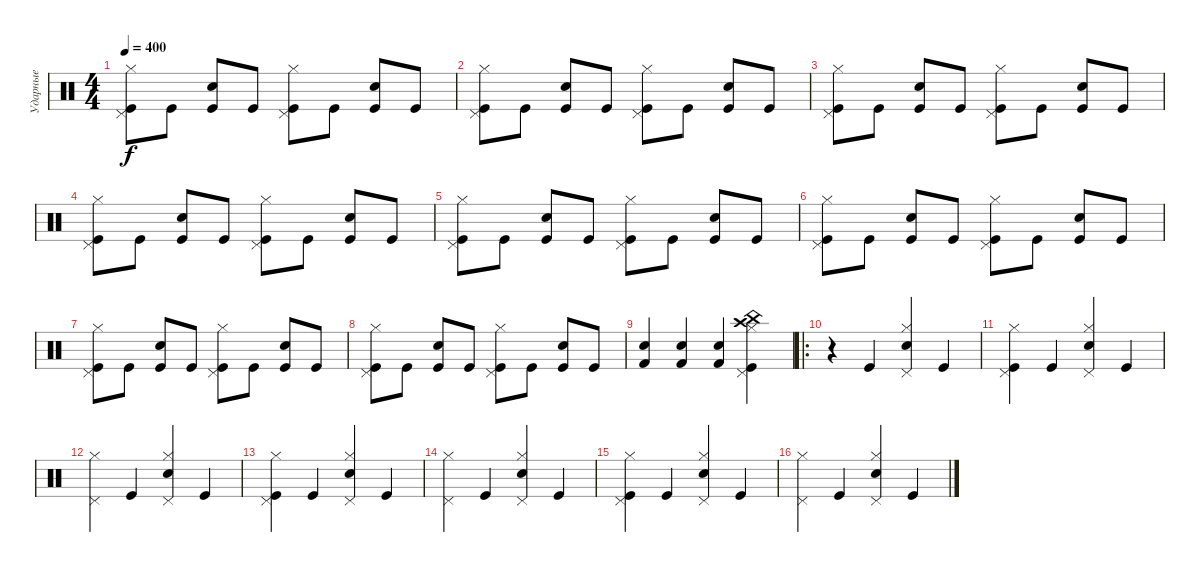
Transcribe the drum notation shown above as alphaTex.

\track ("Ударные" "Ударные") {instrument percussion}
\staff {score}
\articulation defaults
\ts (4 4)
\tempo 400
\clef neutral
\ks c
("Kick (hit)" "Pedal Hi-Hat (hit)" "Hi-Hat (closed)").8{dy f} "Kick (hit)".8 ("Kick (hit)" "Electric Snare (hit)").8 "Kick (hit)".8 ("Kick (hit)" "Hi-Hat (closed)" "Pedal Hi-Hat (hit)").8 "Kick (hit)".8 ("Kick (hit)" "Electric Snare (hit)").8 "Kick (hit)".8 |
("Kick (hit)" "Pedal Hi-Hat (hit)" "Hi-Hat (closed)").8 "Kick (hit)".8 ("Kick (hit)" "Electric Snare (hit)").8 "Kick (hit)".8 ("Kick (hit)" "Hi-Hat (closed)" "Pedal Hi-Hat (hit)").8 "Kick (hit)".8 ("Kick (hit)" "Electric Snare (hit)").8 "Kick (hit)".8 |
("Kick (hit)" "Pedal Hi-Hat (hit)" "Hi-Hat (closed)").8 "Kick (hit)".8 ("Kick (hit)" "Electric Snare (hit)").8 "Kick (hit)".8 ("Kick (hit)" "Hi-Hat (closed)" "Pedal Hi-Hat (hit)").8 "Kick (hit)".8 ("Kick (hit)" "Electric Snare (hit)").8 "Kick (hit)".8 |
("Kick (hit)" "Pedal Hi-Hat (hit)" "Hi-Hat (closed)").8 "Kick (hit)".8 ("Kick (hit)" "Electric Snare (hit)").8 "Kick (hit)".8 ("Kick (hit)" "Hi-Hat (closed)" "Pedal Hi-Hat (hit)").8 "Kick (hit)".8 ("Kick (hit)" "Electric Snare (hit)").8 "Kick (hit)".8 |
("Kick (hit)" "Pedal Hi-Hat (hit)" "Hi-Hat (closed)").8 "Kick (hit)".8 ("Kick (hit)" "Electric Snare (hit)").8 "Kick (hit)".8 ("Kick (hit)" "Hi-Hat (closed)" "Pedal Hi-Hat (hit)").8 "Kick (hit)".8 ("Kick (hit)" "Electric Snare (hit)").8 "Kick (hit)".8 |
("Kick (hit)" "Pedal Hi-Hat (hit)" "Hi-Hat (closed)").8 "Kick (hit)".8 ("Kick (hit)" "Electric Snare (hit)").8 "Kick (hit)".8 ("Kick (hit)" "Hi-Hat (closed)" "Pedal Hi-Hat (hit)").8 "Kick (hit)".8 ("Kick (hit)" "Electric Snare (hit)").8 "Kick (hit)".8 |
("Kick (hit)" "Pedal Hi-Hat (hit)" "Hi-Hat (closed)").8 "Kick (hit)".8 ("Kick (hit)" "Electric Snare (hit)").8 "Kick (hit)".8 ("Kick (hit)" "Hi-Hat (closed)" "Pedal Hi-Hat (hit)").8 "Kick (hit)".8 ("Kick (hit)" "Electric Snare (hit)").8 "Kick (hit)".8 |
("Kick (hit)" "Pedal Hi-Hat (hit)" "Hi-Hat (closed)").8 "Kick (hit)".8 ("Kick (hit)" "Electric Snare (hit)").8 "Kick (hit)".8 ("Kick (hit)" "Hi-Hat (closed)" "Pedal Hi-Hat (hit)").8 "Kick (hit)".8 ("Kick (hit)" "Electric Snare (hit)").8 "Kick (hit)".8 |
("Kick (hit) 2" "Snare (hit) 2").4 ("Kick (hit) 2" "Snare (hit) 2").4 ("Kick (hit) 2" "Snare (hit) 2").4 ("Kick (hit)" "Hi-Hat (closed)" "Pedal Hi-Hat (hit)" "Crash high (hit)" "China (hit)").4 |
\ro
r.4 "Kick (hit)".4 ("Electric Snare (hit)" "Pedal Hi-Hat (hit)" "Hi-Hat (closed)").4 "Kick (hit)".4 |
("Kick (hit)" "Hi-Hat (closed)" "Pedal Hi-Hat (hit)").4 "Kick (hit)".4 ("Electric Snare (hit)" "Hi-Hat (closed)" "Pedal Hi-Hat (hit)").4 "Kick (hit)".4 |
("Hi-Hat (closed)" "Pedal Hi-Hat (hit)").4 "Kick (hit)".4 ("Electric Snare (hit)" "Hi-Hat (closed)" "Pedal Hi-Hat (hit)").4 "Kick (hit)".4 |
("Kick (hit)" "Pedal Hi-Hat (hit)" "Hi-Hat (closed)").4 "Kick (hit)".4 ("Electric Snare (hit)" "Hi-Hat (closed)" "Pedal Hi-Hat (hit)").4 "Kick (hit)".4 |
("Pedal Hi-Hat (hit)" "Hi-Hat (closed)").4 "Kick (hit)".4 ("Electric Snare (hit)" "Pedal Hi-Hat (hit)" "Hi-Hat (closed)").4 "Kick (hit)".4 |
("Kick (hit)" "Hi-Hat (closed)" "Pedal Hi-Hat (hit)").4 "Kick (hit)".4 ("Electric Snare (hit)" "Pedal Hi-Hat (hit)" "Hi-Hat (closed)").4 "Kick (hit)".4 |
("Hi-Hat (closed)" "Pedal Hi-Hat (hit)").4 "Kick (hit)".4 ("Electric Snare (hit)" "Pedal Hi-Hat (hit)" "Hi-Hat (closed)").4 "Kick (hit)".4
